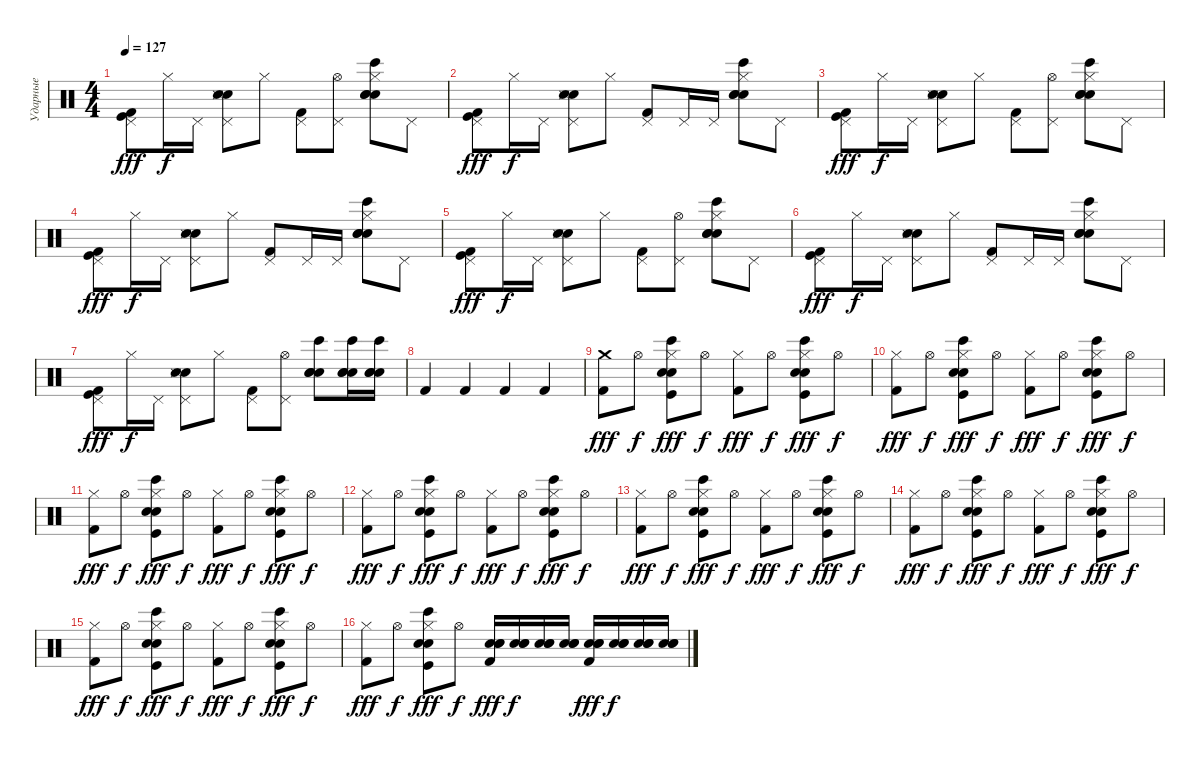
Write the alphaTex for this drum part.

\track ("Ударные" "Ударные") {instrument percussion}
\staff {score}
\articulation defaults
\ts (4 4)
\tempo 127
\clef neutral
\ks c
("Kick (hit) 2" "Kick (hit)" "Pedal Hi-Hat (hit)").8{dy fff} "Hi-Hat (closed)".16{dy f} "Pedal Hi-Hat (hit)".16 ("Pedal Hi-Hat (hit)" "Electric Snare (hit)" "Hand Clap (hit)" "Snare (side stick) 3").8 "Hi-Hat (closed)".8 ("Kick (hit) 2" "Pedal Hi-Hat (hit)").8 ("Pedal Hi-Hat (hit)" "Hi-Hat (open)").8 ("Hi-Hat (closed)" "Hand Clap (hit)" "Hand Clap (hit)" "Snare (hit) 2" "Bongo High (hit)").8 "Pedal Hi-Hat (hit)".8 |
("Kick (hit) 2" "Kick (hit)" "Pedal Hi-Hat (hit)").8{dy fff} "Hi-Hat (closed)".16{dy f} "Pedal Hi-Hat (hit)".16 ("Pedal Hi-Hat (hit)" "Electric Snare (hit)" "Hand Clap (hit)" "Snare (side stick) 3").8 "Hi-Hat (closed)".8 ("Kick (hit) 2" "Pedal Hi-Hat (hit)").8 "Pedal Hi-Hat (hit)".16 "Pedal Hi-Hat (hit)".16 ("Hi-Hat (closed)" "Hand Clap (hit)" "Hand Clap (hit)" "Snare (hit) 2" "Bongo High (hit)").8 "Pedal Hi-Hat (hit)".8 |
("Kick (hit) 2" "Kick (hit)" "Pedal Hi-Hat (hit)").8{dy fff} "Hi-Hat (closed)".16{dy f} "Pedal Hi-Hat (hit)".16 ("Pedal Hi-Hat (hit)" "Electric Snare (hit)" "Hand Clap (hit)" "Snare (side stick) 3").8 "Hi-Hat (closed)".8 ("Kick (hit) 2" "Pedal Hi-Hat (hit)").8 ("Pedal Hi-Hat (hit)" "Hi-Hat (open)").8 ("Hi-Hat (closed)" "Hand Clap (hit)" "Hand Clap (hit)" "Snare (hit) 2" "Bongo High (hit)").8 "Pedal Hi-Hat (hit)".8 |
("Kick (hit) 2" "Kick (hit)" "Pedal Hi-Hat (hit)").8{dy fff} "Hi-Hat (closed)".16{dy f} "Pedal Hi-Hat (hit)".16 ("Pedal Hi-Hat (hit)" "Electric Snare (hit)" "Hand Clap (hit)" "Snare (side stick) 3").8 "Hi-Hat (closed)".8 ("Kick (hit) 2" "Pedal Hi-Hat (hit)").8 "Pedal Hi-Hat (hit)".16 "Pedal Hi-Hat (hit)".16 ("Hi-Hat (closed)" "Hand Clap (hit)" "Hand Clap (hit)" "Snare (hit) 2" "Bongo High (hit)").8 "Pedal Hi-Hat (hit)".8 |
("Kick (hit) 2" "Kick (hit)" "Pedal Hi-Hat (hit)").8{dy fff} "Hi-Hat (closed)".16{dy f} "Pedal Hi-Hat (hit)".16 ("Pedal Hi-Hat (hit)" "Electric Snare (hit)" "Hand Clap (hit)" "Snare (side stick) 3").8 "Hi-Hat (closed)".8 ("Kick (hit) 2" "Pedal Hi-Hat (hit)").8 ("Pedal Hi-Hat (hit)" "Hi-Hat (open)").8 ("Hi-Hat (closed)" "Hand Clap (hit)" "Hand Clap (hit)" "Snare (hit) 2" "Bongo High (hit)").8 "Pedal Hi-Hat (hit)".8 |
("Kick (hit) 2" "Kick (hit)" "Pedal Hi-Hat (hit)").8{dy fff} "Hi-Hat (closed)".16{dy f} "Pedal Hi-Hat (hit)".16 ("Pedal Hi-Hat (hit)" "Electric Snare (hit)" "Hand Clap (hit)" "Snare (side stick) 3").8 "Hi-Hat (closed)".8 ("Kick (hit) 2" "Pedal Hi-Hat (hit)").8 "Pedal Hi-Hat (hit)".16 "Pedal Hi-Hat (hit)".16 ("Hi-Hat (closed)" "Hand Clap (hit)" "Hand Clap (hit)" "Snare (hit) 2" "Bongo High (hit)").8 "Pedal Hi-Hat (hit)".8 |
("Kick (hit) 2" "Kick (hit)" "Pedal Hi-Hat (hit)").8{dy fff} "Hi-Hat (closed)".16{dy f} "Pedal Hi-Hat (hit)".16 ("Pedal Hi-Hat (hit)" "Electric Snare (hit)" "Hand Clap (hit)" "Snare (side stick) 3").8 "Hi-Hat (closed)".8 ("Kick (hit) 2" "Pedal Hi-Hat (hit)").8 ("Pedal Hi-Hat (hit)" "Hi-Hat (open)").8 ("Hand Clap (hit)" "Hand Clap (hit)" "Snare (hit) 2" "Bongo High (hit)").8 ("Hand Clap (hit)" "Hand Clap (hit)" "Snare (hit) 2" "Bongo High (hit)").16 ("Hand Clap (hit)" "Hand Clap (hit)" "Snare (hit) 2" "Bongo High (hit)").16 |
"Kick (hit) 2".4 "Kick (hit) 2".4 "Kick (hit) 2".4 "Kick (hit) 2".4 |
("Kick (hit) 2" "Crash medium (hit)").8{dy fff} "Hi-Hat (open)".8{dy f} ("Hi-Hat (closed)" "Hand Clap (hit)" "Kick (hit)" "Snare (hit) 2" "Bongo High (hit)").8{dy fff} "Hi-Hat (open)".8{dy f} ("Kick (hit) 2" "Hi-Hat (closed)").8{dy fff} "Hi-Hat (open)".8{dy f} ("Hi-Hat (closed)" "Hand Clap (hit)" "Kick (hit)" "Snare (hit) 2" "Bongo High (hit)").8{dy fff} "Hi-Hat (open)".8{dy f} |
("Kick (hit) 2" "Hi-Hat (closed)").8{dy fff} "Hi-Hat (open)".8{dy f} ("Hi-Hat (closed)" "Hand Clap (hit)" "Kick (hit)" "Snare (hit) 2" "Bongo High (hit)").8{dy fff} "Hi-Hat (open)".8{dy f} ("Kick (hit) 2" "Hi-Hat (closed)").8{dy fff} "Hi-Hat (open)".8{dy f} ("Hi-Hat (closed)" "Hand Clap (hit)" "Kick (hit)" "Snare (hit) 2" "Bongo High (hit)").8{dy fff} "Hi-Hat (open)".8{dy f} |
("Kick (hit) 2" "Hi-Hat (closed)").8{dy fff} "Hi-Hat (open)".8{dy f} ("Hi-Hat (closed)" "Hand Clap (hit)" "Kick (hit)" "Snare (hit) 2" "Bongo High (hit)").8{dy fff} "Hi-Hat (open)".8{dy f} ("Kick (hit) 2" "Hi-Hat (closed)").8{dy fff} "Hi-Hat (open)".8{dy f} ("Hi-Hat (closed)" "Hand Clap (hit)" "Kick (hit)" "Snare (hit) 2" "Bongo High (hit)").8{dy fff} "Hi-Hat (open)".8{dy f} |
("Kick (hit) 2" "Hi-Hat (closed)").8{dy fff} "Hi-Hat (open)".8{dy f} ("Hi-Hat (closed)" "Hand Clap (hit)" "Kick (hit)" "Snare (hit) 2" "Bongo High (hit)").8{dy fff} "Hi-Hat (open)".8{dy f} ("Kick (hit) 2" "Hi-Hat (closed)").8{dy fff} "Hi-Hat (open)".8{dy f} ("Hi-Hat (closed)" "Hand Clap (hit)" "Kick (hit)" "Snare (hit) 2" "Bongo High (hit)").8{dy fff} "Hi-Hat (open)".8{dy f} |
("Kick (hit) 2" "Hi-Hat (closed)").8{dy fff} "Hi-Hat (open)".8{dy f} ("Hi-Hat (closed)" "Hand Clap (hit)" "Kick (hit)" "Snare (hit) 2" "Bongo High (hit)").8{dy fff} "Hi-Hat (open)".8{dy f} ("Kick (hit) 2" "Hi-Hat (closed)").8{dy fff} "Hi-Hat (open)".8{dy f} ("Hi-Hat (closed)" "Hand Clap (hit)" "Kick (hit)" "Snare (hit) 2" "Bongo High (hit)").8{dy fff} "Hi-Hat (open)".8{dy f} |
("Kick (hit) 2" "Hi-Hat (closed)").8{dy fff} "Hi-Hat (open)".8{dy f} ("Hi-Hat (closed)" "Hand Clap (hit)" "Kick (hit)" "Snare (hit) 2" "Bongo High (hit)").8{dy fff} "Hi-Hat (open)".8{dy f} ("Kick (hit) 2" "Hi-Hat (closed)").8{dy fff} "Hi-Hat (open)".8{dy f} ("Hi-Hat (closed)" "Hand Clap (hit)" "Kick (hit)" "Snare (hit) 2" "Bongo High (hit)").8{dy fff} "Hi-Hat (open)".8{dy f} |
("Kick (hit) 2" "Hi-Hat (closed)").8{dy fff} "Hi-Hat (open)".8{dy f} ("Hi-Hat (closed)" "Hand Clap (hit)" "Kick (hit)" "Snare (hit) 2" "Bongo High (hit)").8{dy fff} "Hi-Hat (open)".8{dy f} ("Kick (hit) 2" "Hi-Hat (closed)").8{dy fff} "Hi-Hat (open)".8{dy f} ("Hi-Hat (closed)" "Hand Clap (hit)" "Kick (hit)" "Snare (hit) 2" "Bongo High (hit)").8{dy fff} "Hi-Hat (open)".8{dy f} |
("Kick (hit) 2" "Hi-Hat (closed)").8{dy fff} "Hi-Hat (open)".8{dy f} ("Hi-Hat (closed)" "Hand Clap (hit)" "Kick (hit)" "Snare (hit) 2" "Bongo High (hit)").8{dy fff} "Hi-Hat (open)".8{dy f} ("Hand Clap (hit)" "Hand Clap (hit)" "Snare (hit) 2" "Kick (hit) 2").16{dy fff} ("Hand Clap (hit)" "Hand Clap (hit)" "Snare (hit) 2").16{dy f} ("Hand Clap (hit)" "Hand Clap (hit)" "Snare (hit) 2").16 ("Hand Clap (hit)" "Hand Clap (hit)" "Snare (hit) 2").16 ("Hand Clap (hit)" "Hand Clap (hit)" "Snare (hit) 2" "Kick (hit) 2").16{dy fff} ("Hand Clap (hit)" "Hand Clap (hit)" "Snare (hit) 2").16{dy f} ("Hand Clap (hit)" "Hand Clap (hit)" "Snare (hit) 2").16 ("Hand Clap (hit)" "Hand Clap (hit)" "Snare (hit) 2").16
